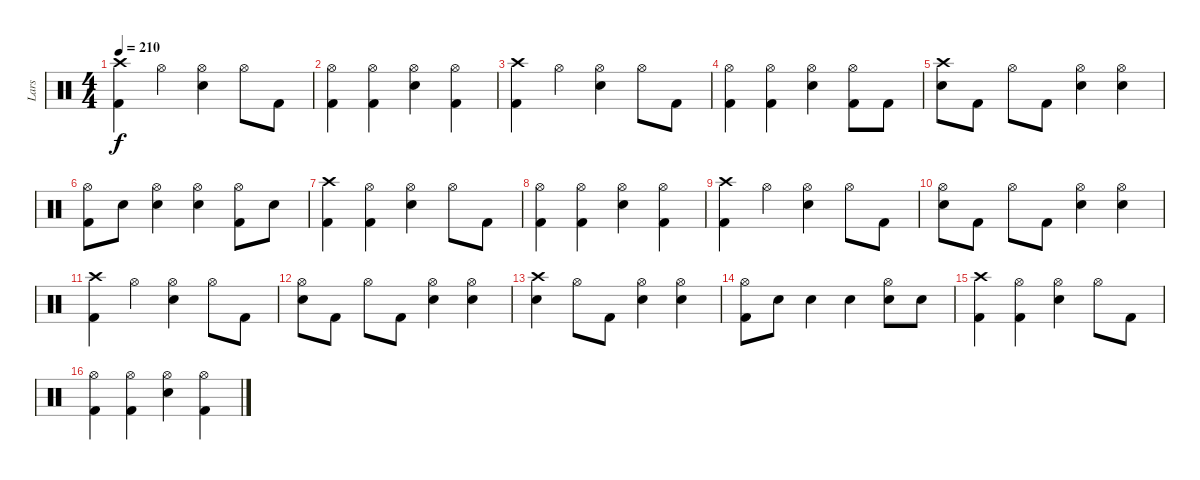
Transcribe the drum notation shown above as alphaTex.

\track ("Lars" "Lars") {instrument percussion}
\staff {score}
\articulation defaults
\ts (4 4)
\tempo 210
\clef neutral
\ks c
("Kick (hit) 2" "Crash high (hit)").4{dy f} "Hi-Hat (open)".4 ("Snare (hit) 2" "Hi-Hat (open)").4 "Hi-Hat (open)".8 "Kick (hit) 2".8 |
("Kick (hit) 2" "Hi-Hat (open)").4 ("Kick (hit) 2" "Hi-Hat (open)").4 ("Snare (hit) 2" "Hi-Hat (open)").4 ("Kick (hit) 2" "Hi-Hat (open)").4 |
("Kick (hit) 2" "Crash high (hit)").4 "Hi-Hat (open)".4 ("Snare (hit) 2" "Hi-Hat (open)").4 "Hi-Hat (open)".8 "Kick (hit) 2".8 |
("Kick (hit) 2" "Hi-Hat (open)").4 ("Kick (hit) 2" "Hi-Hat (open)").4 ("Snare (hit) 2" "Hi-Hat (open)").4 ("Kick (hit) 2" "Hi-Hat (open)").8 "Kick (hit) 2".8 |
("Snare (hit) 2" "Crash high (hit)").8 "Kick (hit) 2".8 "Hi-Hat (open)".8 "Kick (hit) 2".8 ("Snare (hit) 2" "Hi-Hat (open)").4 ("Snare (hit) 2" "Hi-Hat (open)").4 |
("Kick (hit) 2" "Hi-Hat (open)").8 "Snare (hit) 2".8 ("Snare (hit) 2" "Hi-Hat (open)").4 ("Snare (hit) 2" "Hi-Hat (open)").4 ("Kick (hit) 2" "Hi-Hat (open)").8 "Snare (hit) 2".8 |
("Kick (hit) 2" "Crash high (hit)").4 ("Kick (hit) 2" "Hi-Hat (open)").4 ("Snare (hit) 2" "Hi-Hat (open)").4 "Hi-Hat (open)".8 "Kick (hit) 2".8 |
("Kick (hit) 2" "Hi-Hat (open)").4 ("Kick (hit) 2" "Hi-Hat (open)").4 ("Snare (hit) 2" "Hi-Hat (open)").4 ("Kick (hit) 2" "Hi-Hat (open)").4 |
("Kick (hit) 2" "Crash high (hit)").4 "Hi-Hat (open)".4 ("Snare (hit) 2" "Hi-Hat (open)").4 "Hi-Hat (open)".8 "Kick (hit) 2".8 |
("Snare (hit) 2" "Hi-Hat (open)").8 "Kick (hit) 2".8 "Hi-Hat (open)".8 "Kick (hit) 2".8 ("Snare (hit) 2" "Hi-Hat (open)").4 ("Snare (hit) 2" "Hi-Hat (open)").4 |
("Kick (hit) 2" "Crash high (hit)").4 "Hi-Hat (open)".4 ("Snare (hit) 2" "Hi-Hat (open)").4 "Hi-Hat (open)".8 "Kick (hit) 2".8 |
("Snare (hit) 2" "Hi-Hat (open)").8 "Kick (hit) 2".8 "Hi-Hat (open)".8 "Kick (hit) 2".8 ("Snare (hit) 2" "Hi-Hat (open)").4 ("Snare (hit) 2" "Hi-Hat (open)").4 |
("Snare (hit) 2" "Crash high (hit)").4 "Hi-Hat (open)".8 "Kick (hit) 2".8 ("Snare (hit) 2" "Hi-Hat (open)").4 ("Snare (hit) 2" "Hi-Hat (open)").4 |
("Kick (hit) 2" "Hi-Hat (open)").8 "Snare (hit) 2".8 "Snare (hit) 2".4 "Snare (hit) 2".4 ("Snare (hit) 2" "Hi-Hat (open)").8 "Snare (hit) 2".8 |
("Kick (hit) 2" "Crash high (hit)").4 ("Kick (hit) 2" "Hi-Hat (open)").4 ("Snare (hit) 2" "Hi-Hat (open)").4 "Hi-Hat (open)".8 "Kick (hit) 2".8 |
("Kick (hit) 2" "Hi-Hat (open)").4 ("Kick (hit) 2" "Hi-Hat (open)").4 ("Snare (hit) 2" "Hi-Hat (open)").4 ("Kick (hit) 2" "Hi-Hat (open)").4
